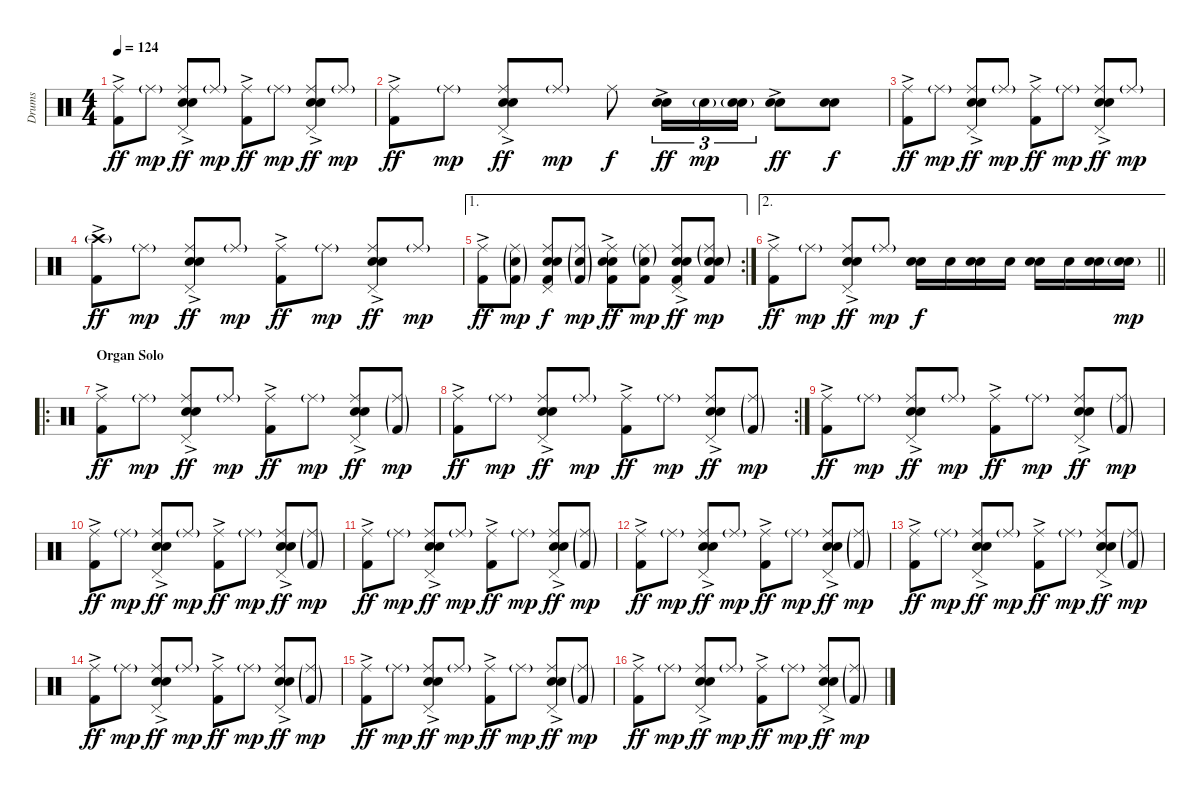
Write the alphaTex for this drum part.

\track ("Drums" "Drums") {instrument percussion}
\staff {score}
\articulation defaults
\ts (4 4)
\tempo 124
\clef neutral
\ks c
("Ride (middle)" "Kick (hit) 2"{ac}).8{dy ff} "Ride (middle)"{g}.8{dy mp} ("Ride (middle)" "Electric Snare (hit)"{ac} "Snare (hit) 2" "Pedal Hi-Hat (hit)").8{dy ff} "Ride (middle)"{g}.8{dy mp} ("Ride (middle)" "Kick (hit) 2"{ac}).8{dy ff} "Ride (middle)"{g}.8{dy mp} ("Ride (middle)" "Electric Snare (hit)"{ac} "Snare (hit) 2" "Pedal Hi-Hat (hit)").8{dy ff} "Ride (middle)"{g}.8{dy mp} |
("Ride (middle)" "Kick (hit) 2"{ac}).8{dy ff} "Ride (middle)"{g}.8{dy mp} ("Ride (middle)" "Electric Snare (hit)"{ac} "Snare (hit) 2" "Pedal Hi-Hat (hit)").8{dy ff} "Ride (middle)"{g}.8{dy mp} "Ride (middle)".8{dy f} ("Electric Snare (hit)"{ac} "Snare (hit) 2").16{tu (3 2) dy ff} "Snare (hit) 2"{g}.16{tu (3 2) dy mp} ("Electric Snare (hit)"{g} "Snare (hit) 2").16{tu (3 2)} ("Electric Snare (hit)"{ac} "Snare (hit) 2").8{dy ff} ("Electric Snare (hit)" "Snare (hit) 2").8{dy f} |
("Ride (middle)" "Kick (hit) 2"{ac}).8{dy ff} "Ride (middle)"{g}.8{dy mp} ("Ride (middle)" "Electric Snare (hit)"{ac} "Snare (hit) 2" "Pedal Hi-Hat (hit)").8{dy ff} "Ride (middle)"{g}.8{dy mp} ("Ride (middle)" "Kick (hit) 2"{ac}).8{dy ff} "Ride (middle)"{g}.8{dy mp} ("Ride (middle)" "Electric Snare (hit)"{ac} "Snare (hit) 2" "Pedal Hi-Hat (hit)").8{dy ff} "Ride (middle)"{g}.8{dy mp} |
("Crash high (hit)"{g} "Kick (hit) 2"{ac}).8{dy ff} "Ride (middle)"{g}.8{dy mp} ("Ride (middle)" "Electric Snare (hit)"{ac} "Snare (hit) 2" "Pedal Hi-Hat (hit)").8{dy ff} "Ride (middle)"{g}.8{dy mp} ("Ride (middle)" "Kick (hit) 2"{ac}).8{dy ff} "Ride (middle)"{g}.8{dy mp} ("Ride (middle)" "Electric Snare (hit)"{ac} "Snare (hit) 2" "Pedal Hi-Hat (hit)").8{dy ff} "Ride (middle)"{g}.8{dy mp} |
\ae 1
\rc 2
("Ride (middle)" "Kick (hit) 2"{ac}).8{dy ff} ("Ride (middle)"{g} "Snare (hit) 2"{g} "Kick (hit) 2"{g}).8{dy mp} ("Ride (middle)" "Pedal Hi-Hat (hit)" "Electric Snare (hit)" "Snare (hit) 2" "Kick (hit) 2").8{dy f} ("Ride (middle)"{g} "Snare (hit) 2"{g} "Kick (hit) 2"{g}).8{dy mp} ("Ride (middle)" "Electric Snare (hit)" "Snare (hit) 2" "Kick (hit) 2"{ac}).8{dy ff} ("Ride (middle)"{g} "Snare (hit) 2"{g} "Kick (hit) 2").8{dy mp} ("Ride (middle)" "Pedal Hi-Hat (hit)" "Electric Snare (hit)" "Snare (hit) 2" "Kick (hit) 2"{ac}).8{dy ff} ("Ride (middle)"{g} "Electric Snare (hit)"{g} "Snare (hit) 2"{g} "Kick (hit) 2").8{dy mp} |
\ae 2
\barLineRight lightlight
("Ride (middle)" "Kick (hit) 2"{ac}).8{dy ff} "Ride (middle)"{g}.8{dy mp} ("Ride (middle)" "Electric Snare (hit)"{ac} "Snare (hit) 2" "Pedal Hi-Hat (hit)").8{dy ff} "Ride (middle)"{g}.8{dy mp} ("Electric Snare (hit)" "Snare (hit) 2").16{dy f} "Snare (hit) 2".16 ("Electric Snare (hit)" "Snare (hit) 2").16 "Snare (hit) 2".16 ("Electric Snare (hit)" "Snare (hit) 2").16 "Snare (hit) 2".16 ("Electric Snare (hit)" "Snare (hit) 2").16 ("Electric Snare (hit)"{g} "Snare (hit) 2").16{dy mp} |
\ro
\section ("" "Organ Solo")
("Ride (middle)" "Kick (hit) 2"{ac}).8{dy ff} "Ride (middle)"{g}.8{dy mp} ("Ride (middle)" "Electric Snare (hit)"{ac} "Snare (hit) 2" "Pedal Hi-Hat (hit)").8{dy ff} "Ride (middle)"{g}.8{dy mp} ("Ride (middle)" "Kick (hit) 2"{ac}).8{dy ff} "Ride (middle)"{g}.8{dy mp} ("Ride (middle)" "Electric Snare (hit)"{ac} "Snare (hit) 2" "Pedal Hi-Hat (hit)").8{dy ff} ("Ride (middle)"{g} "Kick (hit) 2"{g}).8{dy mp} |
\rc 2
("Ride (middle)" "Kick (hit) 2"{ac}).8{dy ff} "Ride (middle)"{g}.8{dy mp} ("Ride (middle)" "Electric Snare (hit)"{ac} "Snare (hit) 2" "Pedal Hi-Hat (hit)").8{dy ff} "Ride (middle)"{g}.8{dy mp} ("Ride (middle)" "Kick (hit) 2"{ac}).8{dy ff} "Ride (middle)"{g}.8{dy mp} ("Ride (middle)" "Electric Snare (hit)"{ac} "Snare (hit) 2" "Pedal Hi-Hat (hit)").8{dy ff} ("Ride (middle)"{g} "Kick (hit) 2"{g}).8{dy mp} |
("Ride (middle)" "Kick (hit) 2"{ac}).8{dy ff} "Ride (middle)"{g}.8{dy mp} ("Ride (middle)" "Electric Snare (hit)"{ac} "Snare (hit) 2" "Pedal Hi-Hat (hit)").8{dy ff} "Ride (middle)"{g}.8{dy mp} ("Ride (middle)" "Kick (hit) 2"{ac}).8{dy ff} "Ride (middle)"{g}.8{dy mp} ("Ride (middle)" "Electric Snare (hit)"{ac} "Snare (hit) 2" "Pedal Hi-Hat (hit)").8{dy ff} ("Ride (middle)"{g} "Kick (hit) 2"{g}).8{dy mp} |
("Ride (middle)" "Kick (hit) 2"{ac}).8{dy ff} "Ride (middle)"{g}.8{dy mp} ("Ride (middle)" "Electric Snare (hit)"{ac} "Snare (hit) 2" "Pedal Hi-Hat (hit)").8{dy ff} "Ride (middle)"{g}.8{dy mp} ("Ride (middle)" "Kick (hit) 2"{ac}).8{dy ff} "Ride (middle)"{g}.8{dy mp} ("Ride (middle)" "Electric Snare (hit)"{ac} "Snare (hit) 2" "Pedal Hi-Hat (hit)").8{dy ff} ("Ride (middle)"{g} "Kick (hit) 2"{g}).8{dy mp} |
("Ride (middle)" "Kick (hit) 2"{ac}).8{dy ff} "Ride (middle)"{g}.8{dy mp} ("Ride (middle)" "Electric Snare (hit)"{ac} "Snare (hit) 2" "Pedal Hi-Hat (hit)").8{dy ff} "Ride (middle)"{g}.8{dy mp} ("Ride (middle)" "Kick (hit) 2"{ac}).8{dy ff} "Ride (middle)"{g}.8{dy mp} ("Ride (middle)" "Electric Snare (hit)"{ac} "Snare (hit) 2" "Pedal Hi-Hat (hit)").8{dy ff} ("Ride (middle)"{g} "Kick (hit) 2"{g}).8{dy mp} |
("Ride (middle)" "Kick (hit) 2"{ac}).8{dy ff} "Ride (middle)"{g}.8{dy mp} ("Ride (middle)" "Electric Snare (hit)"{ac} "Snare (hit) 2" "Pedal Hi-Hat (hit)").8{dy ff} "Ride (middle)"{g}.8{dy mp} ("Ride (middle)" "Kick (hit) 2"{ac}).8{dy ff} "Ride (middle)"{g}.8{dy mp} ("Ride (middle)" "Electric Snare (hit)"{ac} "Snare (hit) 2" "Pedal Hi-Hat (hit)").8{dy ff} ("Ride (middle)"{g} "Kick (hit) 2"{g}).8{dy mp} |
("Ride (middle)" "Kick (hit) 2"{ac}).8{dy ff} "Ride (middle)"{g}.8{dy mp} ("Ride (middle)" "Electric Snare (hit)"{ac} "Snare (hit) 2" "Pedal Hi-Hat (hit)").8{dy ff} "Ride (middle)"{g}.8{dy mp} ("Ride (middle)" "Kick (hit) 2"{ac}).8{dy ff} "Ride (middle)"{g}.8{dy mp} ("Ride (middle)" "Electric Snare (hit)"{ac} "Snare (hit) 2" "Pedal Hi-Hat (hit)").8{dy ff} ("Ride (middle)"{g} "Kick (hit) 2"{g}).8{dy mp} |
("Ride (middle)" "Kick (hit) 2"{ac}).8{dy ff} "Ride (middle)"{g}.8{dy mp} ("Ride (middle)" "Electric Snare (hit)"{ac} "Snare (hit) 2" "Pedal Hi-Hat (hit)").8{dy ff} "Ride (middle)"{g}.8{dy mp} ("Ride (middle)" "Kick (hit) 2"{ac}).8{dy ff} "Ride (middle)"{g}.8{dy mp} ("Ride (middle)" "Electric Snare (hit)"{ac} "Snare (hit) 2" "Pedal Hi-Hat (hit)").8{dy ff} ("Ride (middle)"{g} "Kick (hit) 2"{g}).8{dy mp} |
("Ride (middle)" "Kick (hit) 2"{ac}).8{dy ff} "Ride (middle)"{g}.8{dy mp} ("Ride (middle)" "Electric Snare (hit)"{ac} "Snare (hit) 2" "Pedal Hi-Hat (hit)").8{dy ff} "Ride (middle)"{g}.8{dy mp} ("Ride (middle)" "Kick (hit) 2"{ac}).8{dy ff} "Ride (middle)"{g}.8{dy mp} ("Ride (middle)" "Electric Snare (hit)"{ac} "Snare (hit) 2" "Pedal Hi-Hat (hit)").8{dy ff} ("Ride (middle)"{g} "Kick (hit) 2"{g}).8{dy mp} |
("Ride (middle)" "Kick (hit) 2"{ac}).8{dy ff} "Ride (middle)"{g}.8{dy mp} ("Ride (middle)" "Electric Snare (hit)"{ac} "Snare (hit) 2" "Pedal Hi-Hat (hit)").8{dy ff} "Ride (middle)"{g}.8{dy mp} ("Ride (middle)" "Kick (hit) 2"{ac}).8{dy ff} "Ride (middle)"{g}.8{dy mp} ("Ride (middle)" "Electric Snare (hit)"{ac} "Snare (hit) 2" "Pedal Hi-Hat (hit)").8{dy ff} ("Ride (middle)"{g} "Kick (hit) 2"{g}).8{dy mp}
